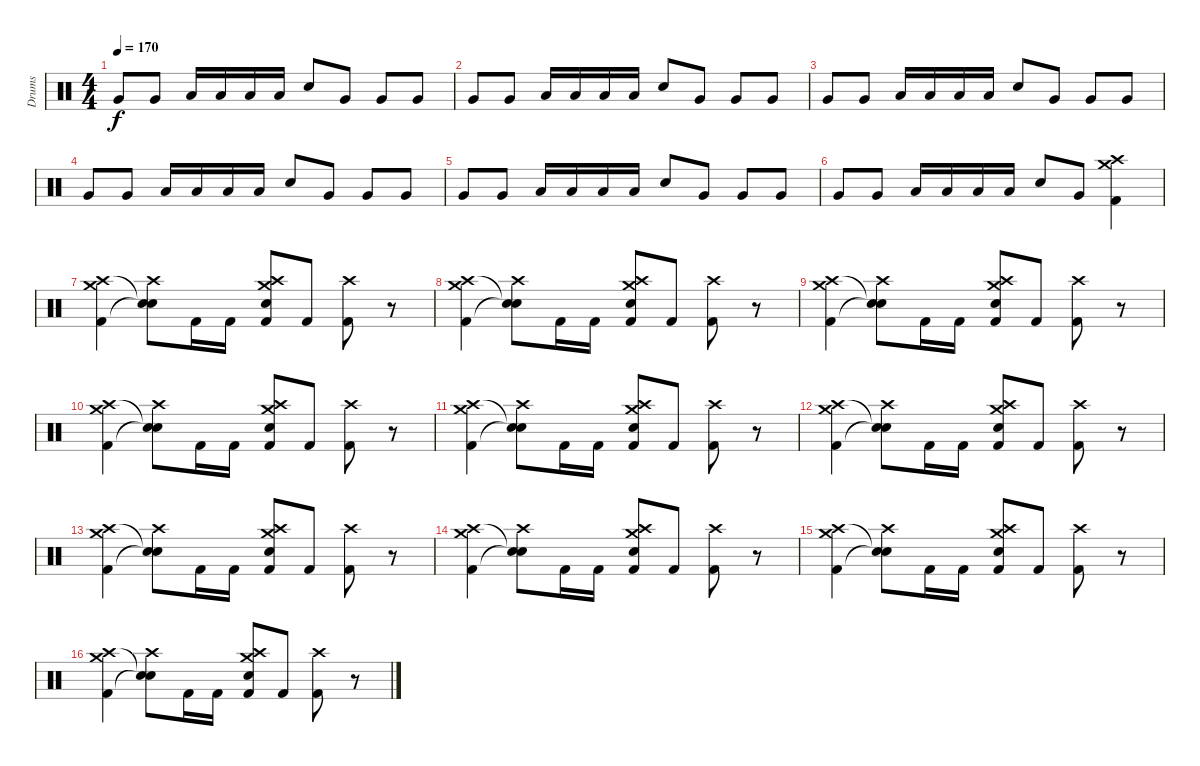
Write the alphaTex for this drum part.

\track ("Drums" "Drums") {instrument percussion}
\staff {score}
\articulation defaults
\ts (4 4)
\tempo 170
\clef neutral
\ks c "Very Low Tom (hit)".8{dy f} "Very Low Tom (hit)".8 "Low Tom (hit)".16 "Low Tom (hit)".16 "Low Tom (hit)".16 "Low Tom (hit)".16 "Snare (hit) 2".8 "Very Low Tom (hit)".8 "Very Low Tom (hit)".8 "Very Low Tom (hit)".8
|
"Very Low Tom (hit)".8 "Very Low Tom (hit)".8 "Low Tom (hit)".16 "Low Tom (hit)".16 "Low Tom (hit)".16 "Low Tom (hit)".16 "Snare (hit) 2".8 "Very Low Tom (hit)".8 "Very Low Tom (hit)".8 "Very Low Tom (hit)".8 |
"Very Low Tom (hit)".8 "Very Low Tom (hit)".8 "Low Tom (hit)".16 "Low Tom (hit)".16 "Low Tom (hit)".16 "Low Tom (hit)".16 "Snare (hit) 2".8 "Very Low Tom (hit)".8 "Very Low Tom (hit)".8 "Very Low Tom (hit)".8 |
"Very Low Tom (hit)".8 "Very Low Tom (hit)".8 "Low Tom (hit)".16 "Low Tom (hit)".16 "Low Tom (hit)".16 "Low Tom (hit)".16 "Snare (hit) 2".8 "Very Low Tom (hit)".8 "Very Low Tom (hit)".8 "Very Low Tom (hit)".8 |
"Very Low Tom (hit)".8 "Very Low Tom (hit)".8 "Low Tom (hit)".16 "Low Tom (hit)".16 "Low Tom (hit)".16 "Low Tom (hit)".16 "Snare (hit) 2".8 "Very Low Tom (hit)".8 "Very Low Tom (hit)".8 "Very Low Tom (hit)".8 |
"Very Low Tom (hit)".8 "Very Low Tom (hit)".8 "Low Tom (hit)".16 "Low Tom (hit)".16 "Low Tom (hit)".16 "Low Tom (hit)".16 "Snare (hit) 2".8 "Very Low Tom (hit)".8 ("Crash high (hit)" "Crash medium (hit)" "Kick (hit) 2").4 |
("Crash medium (hit)" "Crash high (hit)" "Kick (hit) 2").4 ("Crash high (hit)" "Snare (hit)"{t} "Snare (hit)"{t}).8 "Kick (hit) 2".16 "Kick (hit) 2".16 ("Crash high (hit)" "Snare (hit) 2" "Crash medium (hit)" "Kick (hit) 2").8 "Kick (hit) 2".8 ("Crash high (hit)" "Kick (hit) 2").8 r.8 |
("Crash medium (hit)" "Crash high (hit)" "Kick (hit) 2").4 ("Crash high (hit)" "Snare (hit)"{t} "Snare (hit)"{t}).8 "Kick (hit) 2".16 "Kick (hit) 2".16 ("Crash high (hit)" "Snare (hit) 2" "Crash medium (hit)" "Kick (hit) 2").8 "Kick (hit) 2".8 ("Crash high (hit)" "Kick (hit) 2").8 r.8 |
("Crash medium (hit)" "Crash high (hit)" "Kick (hit) 2").4 ("Crash high (hit)" "Snare (hit)"{t} "Snare (hit)"{t}).8 "Kick (hit) 2".16 "Kick (hit) 2".16 ("Crash high (hit)" "Snare (hit) 2" "Crash medium (hit)" "Kick (hit) 2").8 "Kick (hit) 2".8 ("Crash high (hit)" "Kick (hit) 2").8 r.8 |
("Crash medium (hit)" "Crash high (hit)" "Kick (hit) 2").4 ("Crash high (hit)" "Snare (hit)"{t} "Snare (hit)"{t}).8 "Kick (hit) 2".16 "Kick (hit) 2".16 ("Crash high (hit)" "Snare (hit) 2" "Crash medium (hit)" "Kick (hit) 2").8 "Kick (hit) 2".8 ("Crash high (hit)" "Kick (hit) 2").8 r.8 |
("Crash medium (hit)" "Crash high (hit)" "Kick (hit) 2").4 ("Crash high (hit)" "Snare (hit)"{t} "Snare (hit)"{t}).8 "Kick (hit) 2".16 "Kick (hit) 2".16 ("Crash high (hit)" "Snare (hit) 2" "Crash medium (hit)" "Kick (hit) 2").8 "Kick (hit) 2".8 ("Crash high (hit)" "Kick (hit) 2").8 r.8 |
("Crash medium (hit)" "Crash high (hit)" "Kick (hit) 2").4 ("Crash high (hit)" "Snare (hit)"{t} "Snare (hit)"{t}).8 "Kick (hit) 2".16 "Kick (hit) 2".16 ("Crash high (hit)" "Snare (hit) 2" "Crash medium (hit)" "Kick (hit) 2").8 "Kick (hit) 2".8 ("Crash high (hit)" "Kick (hit) 2").8 r.8 |
("Crash medium (hit)" "Crash high (hit)" "Kick (hit) 2").4 ("Crash high (hit)" "Snare (hit)"{t} "Snare (hit)"{t}).8 "Kick (hit) 2".16 "Kick (hit) 2".16 ("Crash high (hit)" "Snare (hit) 2" "Crash medium (hit)" "Kick (hit) 2").8 "Kick (hit) 2".8 ("Crash high (hit)" "Kick (hit) 2").8 r.8 |
("Crash medium (hit)" "Crash high (hit)" "Kick (hit) 2").4 ("Crash high (hit)" "Snare (hit)"{t} "Snare (hit)"{t}).8 "Kick (hit) 2".16 "Kick (hit) 2".16 ("Crash high (hit)" "Snare (hit) 2" "Crash medium (hit)" "Kick (hit) 2").8 "Kick (hit) 2".8 ("Crash high (hit)" "Kick (hit) 2").8 r.8 |
("Crash medium (hit)" "Crash high (hit)" "Kick (hit) 2").4 ("Crash high (hit)" "Snare (hit)"{t} "Snare (hit)"{t}).8 "Kick (hit) 2".16 "Kick (hit) 2".16 ("Crash high (hit)" "Snare (hit) 2" "Crash medium (hit)" "Kick (hit) 2").8 "Kick (hit) 2".8 ("Crash high (hit)" "Kick (hit) 2").8 r.8 |
("Crash medium (hit)" "Crash high (hit)" "Kick (hit) 2").4 ("Crash high (hit)" "Snare (hit)"{t} "Snare (hit)"{t}).8 "Kick (hit) 2".16 "Kick (hit) 2".16 ("Crash high (hit)" "Snare (hit) 2" "Crash medium (hit)" "Kick (hit) 2").8 "Kick (hit) 2".8 ("Crash high (hit)" "Kick (hit) 2").8 r.8
